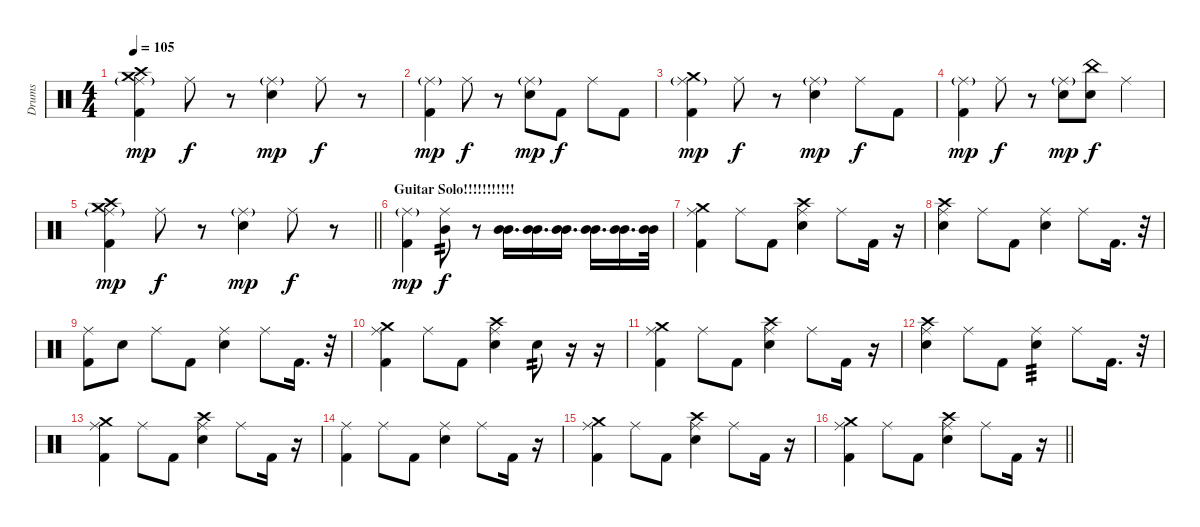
\track ("Drums" "Drums") {instrument percussion}
\staff {score}
\articulation defaults
\ts (4 4)
\tempo 105
\clef neutral
\ks c
("Ride (middle)"{g} "Crash medium (hit)" "Crash high (hit)" "Kick (hit) 2").4{dy mp} "Ride (middle)".8{dy f} r.8 ("Ride (middle)"{g} "Electric Snare (hit)").4{dy mp} "Ride (middle)".8{dy f} r.8 |
("Ride (middle)"{g} "Kick (hit) 2").4{dy mp} "Ride (middle)".8{dy f} r.8 ("Ride (middle)"{g} "Electric Snare (hit)").8{dy mp} "Kick (hit) 2".8{dy f} "Ride (middle)".8 "Kick (hit) 2".8 |
("Ride (middle)"{g} "Crash medium (hit)" "Kick (hit) 2").4{dy mp volume 12} "Ride (middle)".8{dy f} r.8 ("Ride (middle)"{g} "Electric Snare (hit)").4{dy mp} "Ride (middle)".8{dy f} "Kick (hit) 2".8 |
("Ride (middle)"{g} "Kick (hit) 2").4{dy mp} "Ride (middle)".8{dy f} r.8 ("Ride (middle)"{g} "Electric Snare (hit)").8{dy mp} ("China (hit)" "Electric Snare (hit)").8{dy f} "Ride (middle)".4 |
\barLineRight lightlight
("Ride (middle)"{g} "Crash medium (hit)" "Crash high (hit)" "Kick (hit) 2").4{dy mp} "Ride (middle)".8{dy f} r.8 ("Ride (middle)"{g} "Electric Snare (hit)").4{dy mp} "Ride (middle)".8{dy f} r.8 |
\section ("" "Guitar Solo!!!!!!!!!!!")
("Ride (middle)"{g} "Kick (hit) 2").4{dy mp} ("Ride (middle)" "Mid Tom (hit)").8{tp 2 dy f} r.8 ("Mid Tom (hit)" "Mid Tom (hit)").16{d} ("Mid Tom (hit)" "Mid Tom (hit)").16{d} ("Mid Tom (hit)" "Mid Tom (hit)").16{d} ("Mid Tom (hit)" "Mid Tom (hit)").16{d} ("Mid Tom (hit)" "Mid Tom (hit)").16{d} ("Mid Tom (hit)" "Mid Tom (hit)").32 |
("Ride (middle)" "Crash medium (hit)" "Kick (hit) 2").4 "Ride (middle)".8 "Kick (hit) 2".8 ("Ride (middle)" "Crash high (hit)" "Electric Snare (hit)").4 "Ride (middle)".8 "Kick (hit) 2".16 r.16 |
("Ride (middle)" "Crash high (hit)" "Electric Snare (hit)").4 "Ride (middle)".8 "Kick (hit) 2".8 ("Ride (middle)" "Electric Snare (hit)").4 "Ride (middle)".8 "Kick (hit) 2".16{d} r.32 |
("Ride (middle)" "Kick (hit) 2").8 "Electric Snare (hit)".8 "Ride (middle)".8 "Kick (hit) 2".8 ("Ride (middle)" "Electric Snare (hit)").4 "Ride (middle)".8 "Kick (hit) 2".16{d} r.32 |
("Ride (middle)" "Crash medium (hit)" "Kick (hit) 2").4 "Ride (middle)".8 "Kick (hit) 2".8 ("Ride (middle)" "Crash high (hit)" "Electric Snare (hit)").4 "Electric Snare (hit)".8{tp 2} r.16 r.16 |
("Ride (middle)" "Crash medium (hit)" "Kick (hit) 2").4 "Ride (middle)".8 "Kick (hit) 2".8 ("Ride (middle)" "Crash high (hit)" "Electric Snare (hit)").4 "Ride (middle)".8 "Kick (hit) 2".16 r.16 |
("Ride (middle)" "Crash high (hit)" "Electric Snare (hit)").4 "Ride (middle)".8 "Kick (hit) 2".8 ("Ride (middle)" "Electric Snare (hit)").4{tp 3} "Ride (middle)".8 "Kick (hit) 2".16{d} r.32 |
("Ride (middle)" "Crash medium (hit)" "Kick (hit) 2").4 "Ride (middle)".8 "Kick (hit) 2".8 ("Ride (middle)" "Crash high (hit)" "Electric Snare (hit)").4 "Ride (middle)".8 "Kick (hit) 2".16 r.16 |
("Ride (middle)" "Kick (hit) 2").4 "Ride (middle)".8 "Kick (hit) 2".8 ("Ride (middle)" "Electric Snare (hit)").4 "Ride (middle)".8 "Kick (hit) 2".16 r.16 |
("Ride (middle)" "Crash medium (hit)" "Kick (hit) 2").4 "Ride (middle)".8 "Kick (hit) 2".8 ("Ride (middle)" "Crash high (hit)" "Electric Snare (hit)").4 "Ride (middle)".8 "Kick (hit) 2".16 r.16 |
\barLineRight lightlight
("Ride (middle)" "Crash medium (hit)" "Kick (hit) 2").4 "Ride (middle)".8 "Kick (hit) 2".8 ("Ride (middle)" "Crash high (hit)" "Electric Snare (hit)").4 "Ride (middle)".8 "Kick (hit) 2".16 r.16
